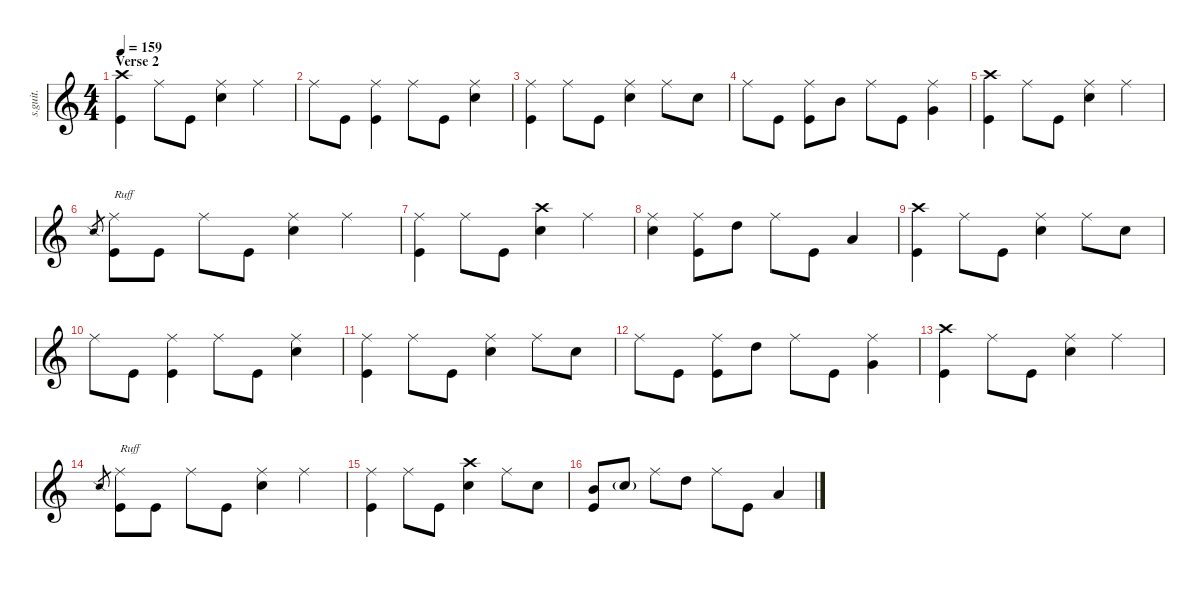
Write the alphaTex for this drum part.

\defaultSystemsLayout 4
\hideDynamics
\bracketExtendMode nobrackets
\track ("John Dolmayan" "s.guit.") {instrument percussion}
\staff {score}
\articulation defaults
\ts (4 4)
\section ("" "Verse 2")
\tempo 159
\clef g2
\ks c
("Crash high (hit)" "Kick (hit)").4{lyrics (0 "") lyrics (1 "") lyrics (2 "") lyrics (3 "") lyrics (4 "") dy f} "Ride (middle)".8{lyrics (0 "") lyrics (1 "") lyrics (2 "") lyrics (3 "") lyrics (4 "")} "Kick (hit)".8{lyrics (0 "") lyrics (1 "") lyrics (2 "") lyrics (3 "") lyrics (4 "")} ("Ride (middle)" "Snare (hit) 2").4{lyrics (0 "") lyrics (1 "") lyrics (2 "") lyrics (3 "") lyrics (4 "")} "Ride (middle)".4{lyrics (0 "") lyrics (1 "") lyrics (2 "") lyrics (3 "") lyrics (4 "")} |
"Ride (middle)".8{lyrics (0 "") lyrics (1 "") lyrics (2 "") lyrics (3 "") lyrics (4 "")} "Kick (hit)".8{lyrics (0 "") lyrics (1 "") lyrics (2 "") lyrics (3 "") lyrics (4 "")} ("Ride (middle)" "Kick (hit)").4{lyrics (0 "") lyrics (1 "") lyrics (2 "") lyrics (3 "") lyrics (4 "")} "Ride (middle)".8{lyrics (0 "") lyrics (1 "") lyrics (2 "") lyrics (3 "") lyrics (4 "")} "Kick (hit)".8{lyrics (0 "") lyrics (1 "") lyrics (2 "") lyrics (3 "") lyrics (4 "")} ("Ride (middle)" "Snare (hit) 2").4{lyrics (0 "") lyrics (1 "") lyrics (2 "") lyrics (3 "") lyrics (4 "")} |
("Ride (middle)" "Kick (hit)").4{lyrics (0 "") lyrics (1 "") lyrics (2 "") lyrics (3 "") lyrics (4 "")} "Ride (middle)".8{lyrics (0 "") lyrics (1 "") lyrics (2 "") lyrics (3 "") lyrics (4 "")} "Kick (hit)".8{lyrics (0 "") lyrics (1 "") lyrics (2 "") lyrics (3 "") lyrics (4 "")} ("Ride (middle)" "Snare (hit) 2").4{lyrics (0 "") lyrics (1 "") lyrics (2 "") lyrics (3 "") lyrics (4 "")} "Ride (middle)".8{lyrics (0 "") lyrics (1 "") lyrics (2 "") lyrics (3 "") lyrics (4 "")} "Snare (hit) 2".8{lyrics (0 "") lyrics (1 "") lyrics (2 "") lyrics (3 "") lyrics (4 "")} |
"Ride (middle)".8{lyrics (0 "") lyrics (1 "") lyrics (2 "") lyrics (3 "") lyrics (4 "")} "Kick (hit)".8{lyrics (0 "") lyrics (1 "") lyrics (2 "") lyrics (3 "") lyrics (4 "")} ("Ride (middle)" "Kick (hit)").8{lyrics (0 "") lyrics (1 "") lyrics (2 "") lyrics (3 "") lyrics (4 "")} "Mid Tom (hit)".8{lyrics (0 "") lyrics (1 "") lyrics (2 "") lyrics (3 "") lyrics (4 "")} "Ride (middle)".8{lyrics (0 "") lyrics (1 "") lyrics (2 "") lyrics (3 "") lyrics (4 "")} "Kick (hit)".8{lyrics (0 "") lyrics (1 "") lyrics (2 "") lyrics (3 "") lyrics (4 "")} ("Ride (middle)" "Very Low Tom (hit)").4{lyrics (0 "") lyrics (1 "") lyrics (2 "") lyrics (3 "") lyrics (4 "")} |
("Crash high (hit)" "Kick (hit)").4{lyrics (0 "") lyrics (1 "") lyrics (2 "") lyrics (3 "") lyrics (4 "")} "Ride (middle)".8{lyrics (0 "") lyrics (1 "") lyrics (2 "") lyrics (3 "") lyrics (4 "")} "Kick (hit)".8{lyrics (0 "") lyrics (1 "") lyrics (2 "") lyrics (3 "") lyrics (4 "")} ("Ride (middle)" "Snare (hit) 2").4{lyrics (0 "") lyrics (1 "") lyrics (2 "") lyrics (3 "") lyrics (4 "")} "Ride (middle)".4{lyrics (0 "") lyrics (1 "") lyrics (2 "") lyrics (3 "") lyrics (4 "")} |
"Snare (side stick) 2".8{lyrics (0 "") lyrics (1 "") lyrics (2 "") lyrics (3 "") lyrics (4 "") gr dy mp} ("Ride (middle)" "Kick (hit)").8{txt "Ruff" lyrics (0 "") lyrics (1 "") lyrics (2 "") lyrics (3 "") lyrics (4 "") dy f} "Kick (hit)".8{lyrics (0 "") lyrics (1 "") lyrics (2 "") lyrics (3 "") lyrics (4 "")} "Ride (middle)".8{lyrics (0 "") lyrics (1 "") lyrics (2 "") lyrics (3 "") lyrics (4 "")} "Kick (hit)".8{lyrics (0 "") lyrics (1 "") lyrics (2 "") lyrics (3 "") lyrics (4 "")} ("Ride (middle)" "Snare (hit) 2").4{lyrics (0 "") lyrics (1 "") lyrics (2 "") lyrics (3 "") lyrics (4 "")} "Ride (middle)".4{lyrics (0 "") lyrics (1 "") lyrics (2 "") lyrics (3 "") lyrics (4 "")} |
("Ride (middle)" "Kick (hit)").4{lyrics (0 "") lyrics (1 "") lyrics (2 "") lyrics (3 "") lyrics (4 "")} "Ride (middle)".8{lyrics (0 "") lyrics (1 "") lyrics (2 "") lyrics (3 "") lyrics (4 "")} "Kick (hit)".8{lyrics (0 "") lyrics (1 "") lyrics (2 "") lyrics (3 "") lyrics (4 "")} ("Crash high (hit)" "Snare (hit) 2").4{lyrics (0 "") lyrics (1 "") lyrics (2 "") lyrics (3 "") lyrics (4 "")} "Ride (middle)".4{lyrics (0 "") lyrics (1 "") lyrics (2 "") lyrics (3 "") lyrics (4 "")} |
("Ride (middle)" "Snare (hit) 2").4{lyrics (0 "") lyrics (1 "") lyrics (2 "") lyrics (3 "") lyrics (4 "")} ("Ride (middle)" "Kick (hit)").8{lyrics (0 "") lyrics (1 "") lyrics (2 "") lyrics (3 "") lyrics (4 "")} "High Tom (hit)".8{lyrics (0 "") lyrics (1 "") lyrics (2 "") lyrics (3 "") lyrics (4 "")} "Ride (middle)".8{lyrics (0 "") lyrics (1 "") lyrics (2 "") lyrics (3 "") lyrics (4 "")} "Kick (hit)".8{lyrics (0 "") lyrics (1 "") lyrics (2 "") lyrics (3 "") lyrics (4 "")} "Low Floor Tom (hit)".4{lyrics (0 "") lyrics (1 "") lyrics (2 "") lyrics (3 "") lyrics (4 "")} |
("Crash high (hit)" "Kick (hit)").4{lyrics (0 "") lyrics (1 "") lyrics (2 "") lyrics (3 "") lyrics (4 "")} "Ride (middle)".8{lyrics (0 "") lyrics (1 "") lyrics (2 "") lyrics (3 "") lyrics (4 "")} "Kick (hit)".8{lyrics (0 "") lyrics (1 "") lyrics (2 "") lyrics (3 "") lyrics (4 "")} ("Ride (middle)" "Snare (hit) 2").4{lyrics (0 "") lyrics (1 "") lyrics (2 "") lyrics (3 "") lyrics (4 "")} "Ride (middle)".8{lyrics (0 "") lyrics (1 "") lyrics (2 "") lyrics (3 "") lyrics (4 "")} "Snare (hit) 2".8{lyrics (0 "") lyrics (1 "") lyrics (2 "") lyrics (3 "") lyrics (4 "")} |
"Ride (middle)".8{lyrics (0 "") lyrics (1 "") lyrics (2 "") lyrics (3 "") lyrics (4 "")} "Kick (hit)".8{lyrics (0 "") lyrics (1 "") lyrics (2 "") lyrics (3 "") lyrics (4 "")} ("Kick (hit)" "Ride (middle)").4{lyrics (0 "") lyrics (1 "") lyrics (2 "") lyrics (3 "") lyrics (4 "")} "Ride (middle)".8{lyrics (0 "") lyrics (1 "") lyrics (2 "") lyrics (3 "") lyrics (4 "")} "Kick (hit)".8{lyrics (0 "") lyrics (1 "") lyrics (2 "") lyrics (3 "") lyrics (4 "")} ("Ride (middle)" "Snare (hit) 2").4{lyrics (0 "") lyrics (1 "") lyrics (2 "") lyrics (3 "") lyrics (4 "")} |
("Ride (middle)" "Kick (hit)").4{lyrics (0 "") lyrics (1 "") lyrics (2 "") lyrics (3 "") lyrics (4 "")} "Ride (middle)".8{lyrics (0 "") lyrics (1 "") lyrics (2 "") lyrics (3 "") lyrics (4 "")} "Kick (hit)".8{lyrics (0 "") lyrics (1 "") lyrics (2 "") lyrics (3 "") lyrics (4 "")} ("Ride (middle)" "Snare (hit) 2").4{lyrics (0 "") lyrics (1 "") lyrics (2 "") lyrics (3 "") lyrics (4 "")} "Ride (middle)".8{lyrics (0 "") lyrics (1 "") lyrics (2 "") lyrics (3 "") lyrics (4 "")} "Snare (hit) 2".8{lyrics (0 "") lyrics (1 "") lyrics (2 "") lyrics (3 "") lyrics (4 "")} |
"Ride (middle)".8{lyrics (0 "") lyrics (1 "") lyrics (2 "") lyrics (3 "") lyrics (4 "")} "Kick (hit)".8{lyrics (0 "") lyrics (1 "") lyrics (2 "") lyrics (3 "") lyrics (4 "")} ("Kick (hit)" "Ride (middle)").8{lyrics (0 "") lyrics (1 "") lyrics (2 "") lyrics (3 "") lyrics (4 "")} "High Tom (hit)".8{lyrics (0 "") lyrics (1 "") lyrics (2 "") lyrics (3 "") lyrics (4 "")} "Ride (middle)".8{lyrics (0 "") lyrics (1 "") lyrics (2 "") lyrics (3 "") lyrics (4 "")} "Kick (hit)".8{lyrics (0 "") lyrics (1 "") lyrics (2 "") lyrics (3 "") lyrics (4 "")} ("Very Low Tom (hit)" "Ride (middle)").4{lyrics (0 "") lyrics (1 "") lyrics (2 "") lyrics (3 "") lyrics (4 "")} |
("Crash high (hit)" "Kick (hit)").4{lyrics (0 "") lyrics (1 "") lyrics (2 "") lyrics (3 "") lyrics (4 "")} "Ride (middle)".8{lyrics (0 "") lyrics (1 "") lyrics (2 "") lyrics (3 "") lyrics (4 "")} "Kick (hit)".8{lyrics (0 "") lyrics (1 "") lyrics (2 "") lyrics (3 "") lyrics (4 "")} ("Ride (middle)" "Snare (hit) 2").4{lyrics (0 "") lyrics (1 "") lyrics (2 "") lyrics (3 "") lyrics (4 "")} "Ride (middle)".4{lyrics (0 "") lyrics (1 "") lyrics (2 "") lyrics (3 "") lyrics (4 "")} |
"Snare (side stick) 2".8{lyrics (0 "") lyrics (1 "") lyrics (2 "") lyrics (3 "") lyrics (4 "") gr dy mp} ("Ride (middle)" "Kick (hit)").8{txt "Ruff" lyrics (0 "") lyrics (1 "") lyrics (2 "") lyrics (3 "") lyrics (4 "") dy f} "Kick (hit)".8{lyrics (0 "") lyrics (1 "") lyrics (2 "") lyrics (3 "") lyrics (4 "")} "Ride (middle)".8{lyrics (0 "") lyrics (1 "") lyrics (2 "") lyrics (3 "") lyrics (4 "")} "Kick (hit)".8{lyrics (0 "") lyrics (1 "") lyrics (2 "") lyrics (3 "") lyrics (4 "")} ("Ride (middle)" "Snare (hit) 2").4{lyrics (0 "") lyrics (1 "") lyrics (2 "") lyrics (3 "") lyrics (4 "")} "Ride (middle)".4{lyrics (0 "") lyrics (1 "") lyrics (2 "") lyrics (3 "") lyrics (4 "")} |
("Ride (middle)" "Kick (hit)").4{lyrics (0 "") lyrics (1 "") lyrics (2 "") lyrics (3 "") lyrics (4 "")} "Ride (middle)".8{lyrics (0 "") lyrics (1 "") lyrics (2 "") lyrics (3 "") lyrics (4 "")} "Kick (hit)".8{lyrics (0 "") lyrics (1 "") lyrics (2 "") lyrics (3 "") lyrics (4 "")} ("Crash high (hit)" "Snare (hit) 2").4{lyrics (0 "") lyrics (1 "") lyrics (2 "") lyrics (3 "") lyrics (4 "")} "Ride (middle)".8{lyrics (0 "") lyrics (1 "") lyrics (2 "") lyrics (3 "") lyrics (4 "")} "Snare (hit) 2".8{lyrics (0 "") lyrics (1 "") lyrics (2 "") lyrics (3 "") lyrics (4 "")} |
("Mid Tom (hit)" "Kick (hit)").8{lyrics (0 "") lyrics (1 "") lyrics (2 "") lyrics (3 "") lyrics (4 "")} "Snare (hit) 2"{g}.8{lyrics (0 "") lyrics (1 "") lyrics (2 "") lyrics (3 "") lyrics (4 "")} "Ride (middle)".8{lyrics (0 "") lyrics (1 "") lyrics (2 "") lyrics (3 "") lyrics (4 "")} "High Tom (hit)".8{lyrics (0 "") lyrics (1 "") lyrics (2 "") lyrics (3 "") lyrics (4 "")} "Ride (middle)".8{lyrics (0 "") lyrics (1 "") lyrics (2 "") lyrics (3 "") lyrics (4 "")} "Kick (hit)".8{lyrics (0 "") lyrics (1 "") lyrics (2 "") lyrics (3 "") lyrics (4 "")} "Low Floor Tom (hit)".4{lyrics (0 "") lyrics (1 "") lyrics (2 "") lyrics (3 "") lyrics (4 "")}
